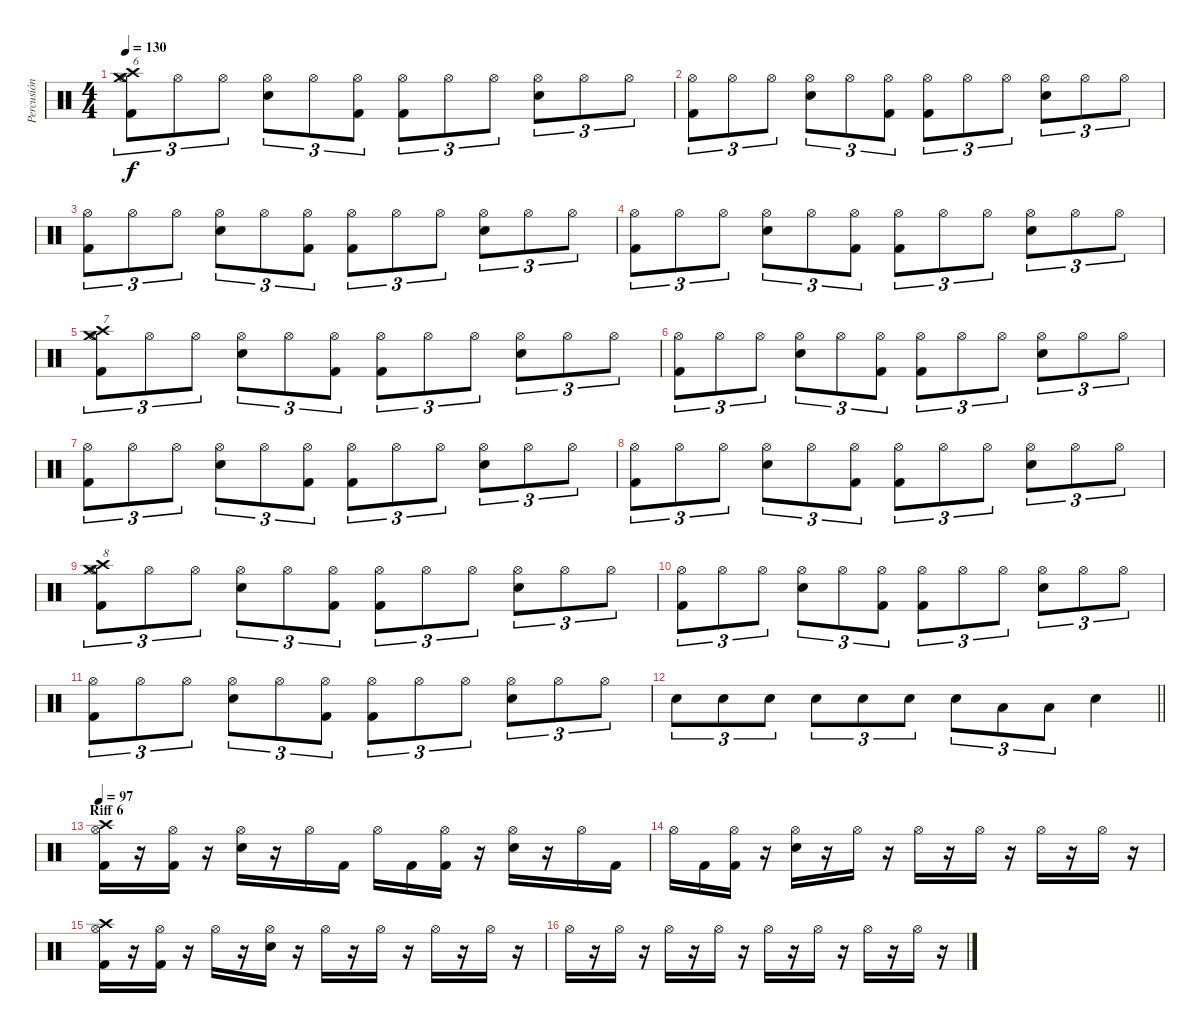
\track ("Percusión" "Percusión") {instrument percussion}
\staff {score}
\articulation defaults
\ts (4 4)
\tempo 130
\clef neutral
\ks c
("Hi-Hat (open)" "Crash medium (hit)" "Crash high (hit)" "Kick (hit) 2").8{tu (3 2) txt "6" dy f volume 12} "Hi-Hat (open)".8{tu (3 2)} "Hi-Hat (open)".8{tu (3 2)} ("Hi-Hat (open)" "Electric Snare (hit)").8{tu (3 2)} "Hi-Hat (open)".8{tu (3 2)} ("Hi-Hat (open)" "Kick (hit) 2").8{tu (3 2)} ("Hi-Hat (open)" "Kick (hit) 2").8{tu (3 2)} "Hi-Hat (open)".8{tu (3 2)} "Hi-Hat (open)".8{tu (3 2)} ("Hi-Hat (open)" "Electric Snare (hit)").8{tu (3 2)} "Hi-Hat (open)".8{tu (3 2)} "Hi-Hat (open)".8{tu (3 2)} |
("Hi-Hat (open)" "Kick (hit) 2").8{tu (3 2)} "Hi-Hat (open)".8{tu (3 2)} "Hi-Hat (open)".8{tu (3 2)} ("Hi-Hat (open)" "Electric Snare (hit)").8{tu (3 2)} "Hi-Hat (open)".8{tu (3 2)} ("Hi-Hat (open)" "Kick (hit) 2").8{tu (3 2)} ("Hi-Hat (open)" "Kick (hit) 2").8{tu (3 2)} "Hi-Hat (open)".8{tu (3 2)} "Hi-Hat (open)".8{tu (3 2)} ("Hi-Hat (open)" "Electric Snare (hit)").8{tu (3 2)} "Hi-Hat (open)".8{tu (3 2)} "Hi-Hat (open)".8{tu (3 2)} |
("Hi-Hat (open)" "Kick (hit) 2").8{tu (3 2)} "Hi-Hat (open)".8{tu (3 2)} "Hi-Hat (open)".8{tu (3 2)} ("Hi-Hat (open)" "Electric Snare (hit)").8{tu (3 2)} "Hi-Hat (open)".8{tu (3 2)} ("Hi-Hat (open)" "Kick (hit) 2").8{tu (3 2)} ("Hi-Hat (open)" "Kick (hit) 2").8{tu (3 2)} "Hi-Hat (open)".8{tu (3 2)} "Hi-Hat (open)".8{tu (3 2)} ("Hi-Hat (open)" "Electric Snare (hit)").8{tu (3 2)} "Hi-Hat (open)".8{tu (3 2)} "Hi-Hat (open)".8{tu (3 2)} |
("Hi-Hat (open)" "Kick (hit) 2").8{tu (3 2)} "Hi-Hat (open)".8{tu (3 2)} "Hi-Hat (open)".8{tu (3 2)} ("Hi-Hat (open)" "Electric Snare (hit)").8{tu (3 2)} "Hi-Hat (open)".8{tu (3 2)} ("Hi-Hat (open)" "Kick (hit) 2").8{tu (3 2)} ("Hi-Hat (open)" "Kick (hit) 2").8{tu (3 2)} "Hi-Hat (open)".8{tu (3 2)} "Hi-Hat (open)".8{tu (3 2)} ("Hi-Hat (open)" "Electric Snare (hit)").8{tu (3 2)} "Hi-Hat (open)".8{tu (3 2)} "Hi-Hat (open)".8{tu (3 2)} |
("Hi-Hat (open)" "Crash medium (hit)" "Crash high (hit)" "Kick (hit) 2").8{tu (3 2) txt "7" volume 12} "Hi-Hat (open)".8{tu (3 2)} "Hi-Hat (open)".8{tu (3 2)} ("Hi-Hat (open)" "Electric Snare (hit)").8{tu (3 2)} "Hi-Hat (open)".8{tu (3 2)} ("Hi-Hat (open)" "Kick (hit) 2").8{tu (3 2)} ("Hi-Hat (open)" "Kick (hit) 2").8{tu (3 2)} "Hi-Hat (open)".8{tu (3 2)} "Hi-Hat (open)".8{tu (3 2)} ("Hi-Hat (open)" "Electric Snare (hit)").8{tu (3 2)} "Hi-Hat (open)".8{tu (3 2)} "Hi-Hat (open)".8{tu (3 2)} |
("Hi-Hat (open)" "Kick (hit) 2").8{tu (3 2)} "Hi-Hat (open)".8{tu (3 2)} "Hi-Hat (open)".8{tu (3 2)} ("Hi-Hat (open)" "Electric Snare (hit)").8{tu (3 2)} "Hi-Hat (open)".8{tu (3 2)} ("Hi-Hat (open)" "Kick (hit) 2").8{tu (3 2)} ("Hi-Hat (open)" "Kick (hit) 2").8{tu (3 2)} "Hi-Hat (open)".8{tu (3 2)} "Hi-Hat (open)".8{tu (3 2)} ("Hi-Hat (open)" "Electric Snare (hit)").8{tu (3 2)} "Hi-Hat (open)".8{tu (3 2)} "Hi-Hat (open)".8{tu (3 2)} |
("Hi-Hat (open)" "Kick (hit) 2").8{tu (3 2)} "Hi-Hat (open)".8{tu (3 2)} "Hi-Hat (open)".8{tu (3 2)} ("Hi-Hat (open)" "Electric Snare (hit)").8{tu (3 2)} "Hi-Hat (open)".8{tu (3 2)} ("Hi-Hat (open)" "Kick (hit) 2").8{tu (3 2)} ("Hi-Hat (open)" "Kick (hit) 2").8{tu (3 2)} "Hi-Hat (open)".8{tu (3 2)} "Hi-Hat (open)".8{tu (3 2)} ("Hi-Hat (open)" "Electric Snare (hit)").8{tu (3 2)} "Hi-Hat (open)".8{tu (3 2)} "Hi-Hat (open)".8{tu (3 2)} |
("Hi-Hat (open)" "Kick (hit) 2").8{tu (3 2)} "Hi-Hat (open)".8{tu (3 2)} "Hi-Hat (open)".8{tu (3 2)} ("Hi-Hat (open)" "Electric Snare (hit)").8{tu (3 2)} "Hi-Hat (open)".8{tu (3 2)} ("Hi-Hat (open)" "Kick (hit) 2").8{tu (3 2)} ("Hi-Hat (open)" "Kick (hit) 2").8{tu (3 2)} "Hi-Hat (open)".8{tu (3 2)} "Hi-Hat (open)".8{tu (3 2)} ("Hi-Hat (open)" "Electric Snare (hit)").8{tu (3 2)} "Hi-Hat (open)".8{tu (3 2)} "Hi-Hat (open)".8{tu (3 2)} |
("Hi-Hat (open)" "Crash medium (hit)" "Crash high (hit)" "Kick (hit) 2").8{tu (3 2) txt "8" volume 12} "Hi-Hat (open)".8{tu (3 2)} "Hi-Hat (open)".8{tu (3 2)} ("Hi-Hat (open)" "Electric Snare (hit)").8{tu (3 2)} "Hi-Hat (open)".8{tu (3 2)} ("Hi-Hat (open)" "Kick (hit) 2").8{tu (3 2)} ("Hi-Hat (open)" "Kick (hit) 2").8{tu (3 2)} "Hi-Hat (open)".8{tu (3 2)} "Hi-Hat (open)".8{tu (3 2)} ("Hi-Hat (open)" "Electric Snare (hit)").8{tu (3 2)} "Hi-Hat (open)".8{tu (3 2)} "Hi-Hat (open)".8{tu (3 2)} |
("Hi-Hat (open)" "Kick (hit) 2").8{tu (3 2)} "Hi-Hat (open)".8{tu (3 2)} "Hi-Hat (open)".8{tu (3 2)} ("Hi-Hat (open)" "Electric Snare (hit)").8{tu (3 2)} "Hi-Hat (open)".8{tu (3 2)} ("Hi-Hat (open)" "Kick (hit) 2").8{tu (3 2)} ("Hi-Hat (open)" "Kick (hit) 2").8{tu (3 2)} "Hi-Hat (open)".8{tu (3 2)} "Hi-Hat (open)".8{tu (3 2)} ("Hi-Hat (open)" "Electric Snare (hit)").8{tu (3 2)} "Hi-Hat (open)".8{tu (3 2)} "Hi-Hat (open)".8{tu (3 2)} |
("Hi-Hat (open)" "Kick (hit) 2").8{tu (3 2)} "Hi-Hat (open)".8{tu (3 2)} "Hi-Hat (open)".8{tu (3 2)} ("Hi-Hat (open)" "Electric Snare (hit)").8{tu (3 2)} "Hi-Hat (open)".8{tu (3 2)} ("Hi-Hat (open)" "Kick (hit) 2").8{tu (3 2)} ("Hi-Hat (open)" "Kick (hit) 2").8{tu (3 2)} "Hi-Hat (open)".8{tu (3 2)} "Hi-Hat (open)".8{tu (3 2)} ("Hi-Hat (open)" "Electric Snare (hit)").8{tu (3 2)} "Hi-Hat (open)".8{tu (3 2)} "Hi-Hat (open)".8{tu (3 2)} |
\barLineRight lightlight "Electric Snare (hit)".8{tu (3 2)} "Electric Snare (hit)".8{tu (3 2)} "Electric Snare (hit)".8{tu (3 2)} "Electric Snare (hit)".8{tu (3 2)} "Electric Snare (hit)".8{tu (3 2)} "Electric Snare (hit)".8{tu (3 2)} "Electric Snare (hit)".8{tu (3 2)} "Low Tom (hit)".8{tu (3 2)} "Low Tom (hit)".8{tu (3 2)} "Electric Snare (hit)".4
|
\section ("" "Riff 6")
\tempo 97
("Hi-Hat (open)" "Crash high (hit)" "Kick (hit) 2").16 r.16 ("Hi-Hat (open)" "Kick (hit) 2").16 r.16 ("Hi-Hat (open)" "Electric Snare (hit)").16 r.16 "Hi-Hat (open)".16 "Kick (hit) 2".16 "Hi-Hat (open)".16 "Kick (hit) 2".16 ("Hi-Hat (open)" "Kick (hit) 2").16 r.16 ("Hi-Hat (open)" "Electric Snare (hit)").16 r.16 "Hi-Hat (open)".16 "Kick (hit) 2".16 |
"Hi-Hat (open)".16 "Kick (hit) 2".16 ("Hi-Hat (open)" "Kick (hit) 2").16 r.16 ("Hi-Hat (open)" "Electric Snare (hit)").16 r.16 "Hi-Hat (open)".16 r.16 "Hi-Hat (open)".16 r.16 "Hi-Hat (open)".16 r.16 "Hi-Hat (open)".16 r.16 "Hi-Hat (open)".16 r.16 |
("Hi-Hat (open)" "Crash high (hit)" "Kick (hit) 2").16 r.16 ("Hi-Hat (open)" "Kick (hit) 2").16 r.16 "Hi-Hat (open)".16 r.16 ("Hi-Hat (open)" "Electric Snare (hit)").16 r.16 "Hi-Hat (open)".16 r.16 "Hi-Hat (open)".16 r.16 "Hi-Hat (open)".16 r.16 "Hi-Hat (open)".16 r.16 |
"Hi-Hat (open)".16 r.16 "Hi-Hat (open)".16 r.16 "Hi-Hat (open)".16 r.16 "Hi-Hat (open)".16 r.16 "Hi-Hat (open)".16 r.16 "Hi-Hat (open)".16 r.16 "Hi-Hat (open)".16 r.16 "Hi-Hat (open)".16 r.16
